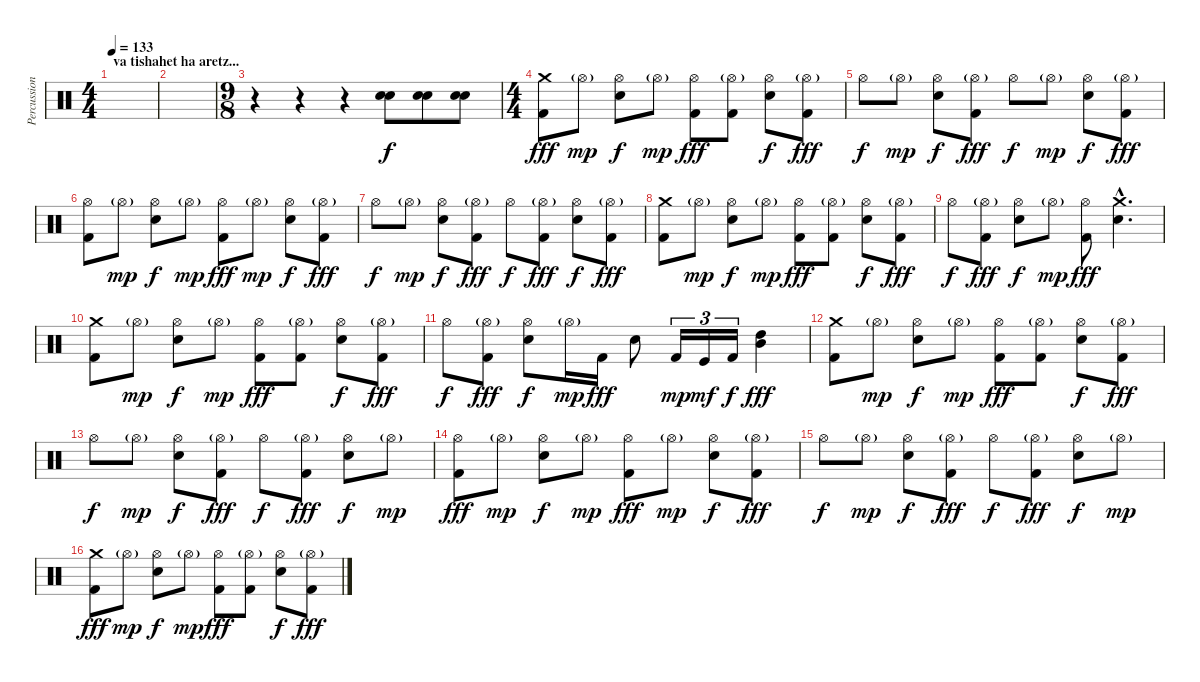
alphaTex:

\track ("Percussion" "Percussion") {instrument percussion}
\staff {score}
\articulation defaults
\ts (4 4)
\section ("" "va tishahet ha aretz...")
\tempo 133
\clef neutral
\ks c
|
|
\ts (9 8)
r.4 r.4 r.4 ("Snare (hit) 2" "Electric Snare (hit)").8 ("Snare (hit) 2" "Electric Snare (hit)").8 ("Snare (hit) 2" "Electric Snare (hit)").8 |
\ts (4 4)
("Crash medium (hit)" "Kick (hit) 2").8{dy fff} "Hi-Hat (open)"{g}.8{dy mp} ("Hi-Hat (open)" "Electric Snare (hit)").8{dy f} "Hi-Hat (open)"{g}.8{dy mp} ("Hi-Hat (open)" "Kick (hit) 2").8{dy fff} ("Hi-Hat (open)"{g} "Kick (hit) 2").8 ("Hi-Hat (open)" "Electric Snare (hit)").8{dy f} ("Hi-Hat (open)"{g} "Kick (hit) 2").8{dy fff} |
"Hi-Hat (open)".8{dy f} "Hi-Hat (open)"{g}.8{dy mp} ("Hi-Hat (open)" "Electric Snare (hit)").8{dy f} ("Hi-Hat (open)"{g} "Kick (hit) 2").8{dy fff} "Hi-Hat (open)".8{dy f} "Hi-Hat (open)"{g}.8{dy mp} ("Hi-Hat (open)" "Electric Snare (hit)").8{dy f} ("Hi-Hat (open)"{g} "Kick (hit) 2").8{dy fff} |
("Hi-Hat (open)" "Kick (hit) 2").8 "Hi-Hat (open)"{g}.8{dy mp} ("Hi-Hat (open)" "Electric Snare (hit)").8{dy f} "Hi-Hat (open)"{g}.8{dy mp} ("Hi-Hat (open)" "Kick (hit) 2").8{dy fff} "Hi-Hat (open)"{g}.8{dy mp} ("Hi-Hat (open)" "Electric Snare (hit)").8{dy f} ("Hi-Hat (open)"{g} "Kick (hit) 2").8{dy fff} |
"Hi-Hat (open)".8{dy f} "Hi-Hat (open)"{g}.8{dy mp} ("Hi-Hat (open)" "Electric Snare (hit)").8{dy f} ("Hi-Hat (open)"{g} "Kick (hit) 2").8{dy fff} "Hi-Hat (open)".8{dy f} ("Hi-Hat (open)"{g} "Kick (hit) 2").8{dy fff} ("Hi-Hat (open)" "Electric Snare (hit)").8{dy f} ("Hi-Hat (open)"{g} "Kick (hit) 2").8{dy fff} |
("Crash medium (hit)" "Kick (hit) 2").8 "Hi-Hat (open)"{g}.8{dy mp} ("Hi-Hat (open)" "Electric Snare (hit)").8{dy f} "Hi-Hat (open)"{g}.8{dy mp} ("Hi-Hat (open)" "Kick (hit) 2").8{dy fff} ("Hi-Hat (open)"{g} "Kick (hit) 2").8 ("Hi-Hat (open)" "Electric Snare (hit)").8{dy f} ("Hi-Hat (open)"{g} "Kick (hit) 2").8{dy fff} |
"Hi-Hat (open)".8{dy f} ("Hi-Hat (open)"{g} "Kick (hit) 2").8{dy fff} ("Hi-Hat (open)" "Electric Snare (hit)").8{dy f} "Hi-Hat (open)"{g}.8{dy mp} ("Hi-Hat (open)" "Kick (hit) 2").8{dy fff} ("Crash medium (hit)"{hac} "Electric Snare (hit)"{hac}).4{d} |
("Crash medium (hit)" "Kick (hit) 2").8 "Hi-Hat (open)"{g}.8{dy mp} ("Hi-Hat (open)" "Electric Snare (hit)").8{dy f} "Hi-Hat (open)"{g}.8{dy mp} ("Hi-Hat (open)" "Kick (hit) 2").8{dy fff} ("Hi-Hat (open)"{g} "Kick (hit) 2").8 ("Hi-Hat (open)" "Electric Snare (hit)").8{dy f} ("Hi-Hat (open)"{g} "Kick (hit) 2").8{dy fff} |
"Hi-Hat (open)".8{dy f} ("Hi-Hat (open)"{g} "Kick (hit) 2").8{dy fff} ("Hi-Hat (open)" "Electric Snare (hit)").8{dy f} "Hi-Hat (open)"{g}.16{dy mp} "Kick (hit) 2".16{dy fff} "Electric Snare (hit)".8 "Kick (hit) 2".16{tu (3 2) dy mp} "Kick (hit)".16{tu (3 2) dy mf} "Kick (hit) 2".16{tu (3 2) dy f} ("Mid Tom (hit)" "High Tom (hit)").4{dy fff} |
("Crash medium (hit)" "Kick (hit) 2").8 "Hi-Hat (open)"{g}.8{dy mp} ("Hi-Hat (open)" "Electric Snare (hit)").8{dy f} "Hi-Hat (open)"{g}.8{dy mp} ("Hi-Hat (open)" "Kick (hit) 2").8{dy fff} ("Hi-Hat (open)"{g} "Kick (hit) 2").8 ("Hi-Hat (open)" "Electric Snare (hit)").8{dy f} ("Hi-Hat (open)"{g} "Kick (hit) 2").8{dy fff} |
"Hi-Hat (open)".8{dy f} "Hi-Hat (open)"{g}.8{dy mp} ("Hi-Hat (open)" "Electric Snare (hit)").8{dy f} ("Hi-Hat (open)"{g} "Kick (hit) 2").8{dy fff} "Hi-Hat (open)".8{dy f} ("Hi-Hat (open)"{g} "Kick (hit) 2").8{dy fff} ("Hi-Hat (open)" "Electric Snare (hit)").8{dy f} "Hi-Hat (open)"{g}.8{dy mp} |
("Hi-Hat (open)" "Kick (hit) 2").8{dy fff} "Hi-Hat (open)"{g}.8{dy mp} ("Hi-Hat (open)" "Electric Snare (hit)").8{dy f} "Hi-Hat (open)"{g}.8{dy mp} ("Hi-Hat (open)" "Kick (hit) 2").8{dy fff} "Hi-Hat (open)"{g}.8{dy mp} ("Hi-Hat (open)" "Electric Snare (hit)").8{dy f} ("Hi-Hat (open)"{g} "Kick (hit) 2").8{dy fff} |
"Hi-Hat (open)".8{dy f} "Hi-Hat (open)"{g}.8{dy mp} ("Hi-Hat (open)" "Electric Snare (hit)").8{dy f} ("Hi-Hat (open)"{g} "Kick (hit) 2").8{dy fff} "Hi-Hat (open)".8{dy f} ("Hi-Hat (open)"{g} "Kick (hit) 2").8{dy fff} ("Hi-Hat (open)" "Electric Snare (hit)").8{dy f} "Hi-Hat (open)"{g}.8{dy mp} |
("Crash medium (hit)" "Kick (hit) 2").8{dy fff} "Hi-Hat (open)"{g}.8{dy mp} ("Hi-Hat (open)" "Electric Snare (hit)").8{dy f} "Hi-Hat (open)"{g}.8{dy mp} ("Hi-Hat (open)" "Kick (hit) 2").8{dy fff} ("Hi-Hat (open)"{g} "Kick (hit) 2").8 ("Hi-Hat (open)" "Electric Snare (hit)").8{dy f} ("Hi-Hat (open)"{g} "Kick (hit) 2").8{dy fff}
